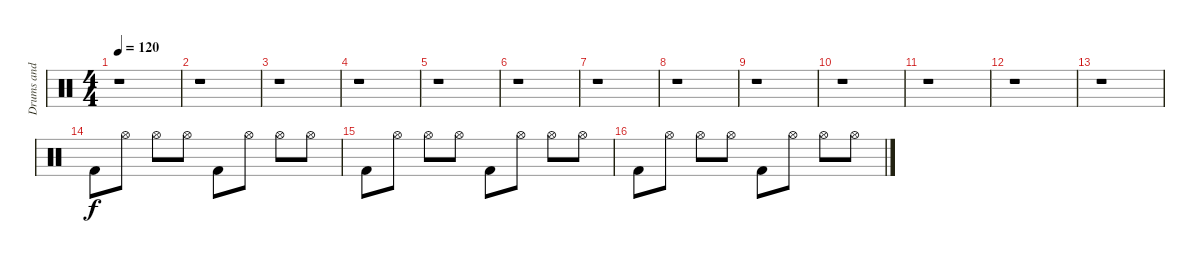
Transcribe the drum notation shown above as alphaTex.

\track ("Drums and Percussion" "Drums and ") {instrument percussion}
\staff {score}
\articulation defaults
\ts (4 4)
\tempo 120
\clef neutral
\ks c
r.1{dy f} |
r.1 |
r.1 |
r.1 |
r.1 |
r.1 |
r.1 |
r.1 |
r.1 |
r.1 |
r.1 |
r.1 |
r.1 |
"Kick (hit) 2".8 "Hi-Hat (open)".8 "Hi-Hat (open)".8 "Hi-Hat (open)".8 "Kick (hit) 2".8 "Hi-Hat (open)".8 "Hi-Hat (open)".8 "Hi-Hat (open)".8 |
"Kick (hit) 2".8 "Hi-Hat (open)".8 "Hi-Hat (open)".8 "Hi-Hat (open)".8 "Kick (hit) 2".8 "Hi-Hat (open)".8 "Hi-Hat (open)".8 "Hi-Hat (open)".8 |
"Kick (hit) 2".8 "Hi-Hat (open)".8 "Hi-Hat (open)".8 "Hi-Hat (open)".8 "Kick (hit) 2".8 "Hi-Hat (open)".8 "Hi-Hat (open)".8 "Hi-Hat (open)".8
